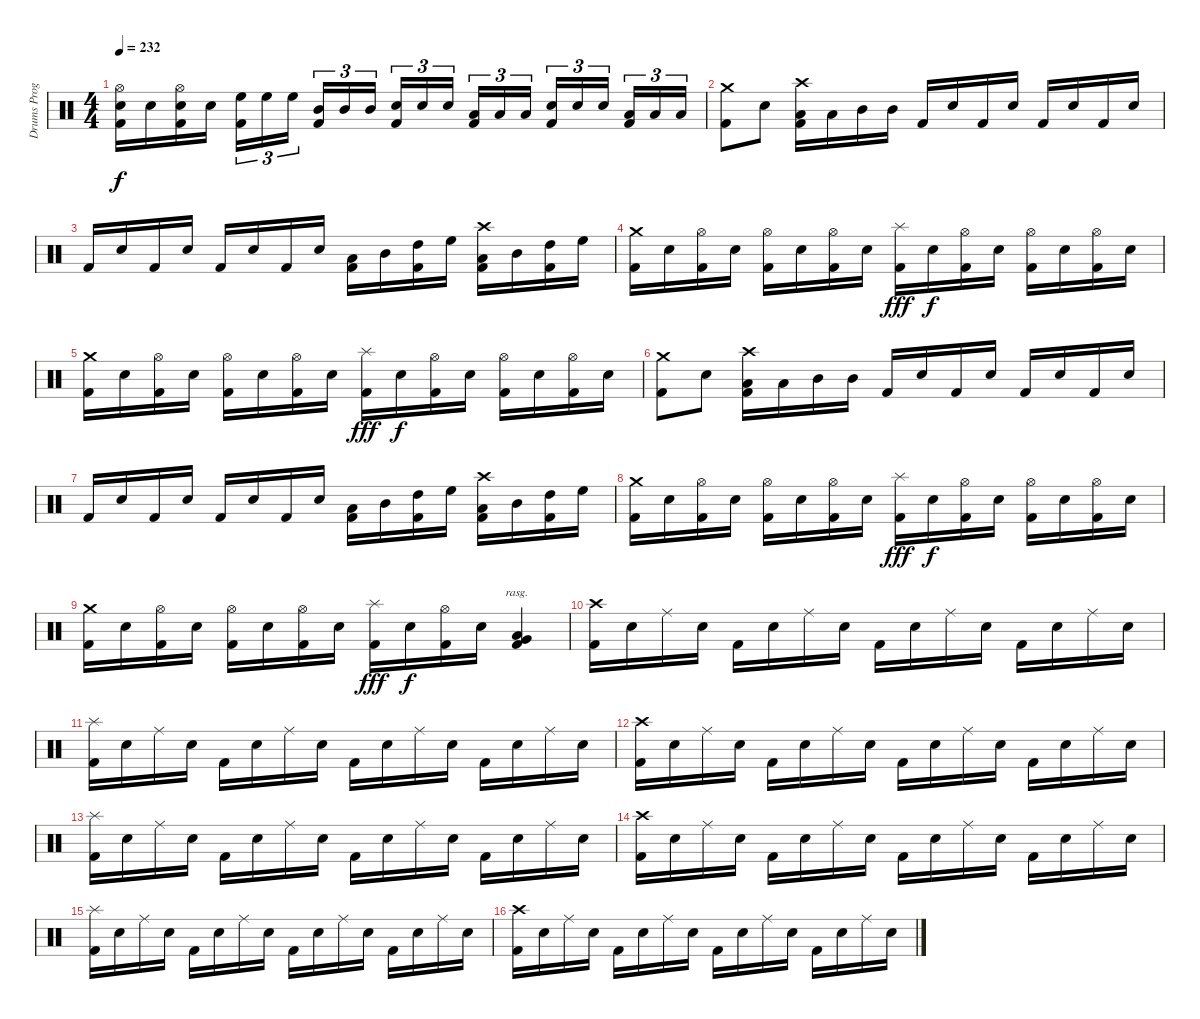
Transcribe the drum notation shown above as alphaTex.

\track ("Drums Programming" "Drums Prog") {instrument percussion}
\staff {score}
\articulation defaults
\ts (4 4)
\tempo 232
\clef neutral
\ks c
("Hi-Hat (open)" "Electric Snare (hit)" "Kick (hit) 2").16{dy f} "Electric Snare (hit)".16 ("Hi-Hat (open)" "Electric Snare (hit)" "Kick (hit) 2").16 "Electric Snare (hit)".16 ("High Floor Tom (hit)" "Kick (hit) 2").16{tu (3 2)} "High Floor Tom (hit)".16{tu (3 2)} "High Floor Tom (hit)".16{tu (3 2)} ("Mid Tom (hit)" "Kick (hit) 2").16{tu (3 2)} "Mid Tom (hit)".16{tu (3 2)} "Mid Tom (hit)".16{tu (3 2)} ("Electric Snare (hit)" "Kick (hit) 2").16{tu (3 2)} "Electric Snare (hit)".16{tu (3 2)} "Electric Snare (hit)".16{tu (3 2)} ("Low Tom (hit)" "Kick (hit) 2").16{tu (3 2)} "Low Tom (hit)".16{tu (3 2)} "Low Tom (hit)".16{tu (3 2)} ("Electric Snare (hit)" "Kick (hit) 2").16{tu (3 2)} "Electric Snare (hit)".16{tu (3 2)} "Electric Snare (hit)".16{tu (3 2)} ("Low Floor Tom (hit)" "Kick (hit) 2").16{tu (3 2)} "Low Floor Tom (hit)".16{tu (3 2)} "Low Floor Tom (hit)".16{tu (3 2)} |
("Crash medium (hit)" "Kick (hit) 2").8 "Electric Snare (hit)".8 ("Crash high (hit)" "Low Tom (hit)" "Kick (hit) 2").16 "Low Tom (hit)".16 "Mid Tom (hit)".16 "Mid Tom (hit)".16 "Kick (hit) 2".16 "Electric Snare (hit)".16 "Kick (hit) 2".16 "Electric Snare (hit)".16 "Kick (hit) 2".16 "Electric Snare (hit)".16 "Kick (hit) 2".16 "Electric Snare (hit)".16 |
"Kick (hit) 2".16 "Electric Snare (hit)".16 "Kick (hit) 2".16 "Electric Snare (hit)".16 "Kick (hit) 2".16 "Electric Snare (hit)".16 "Kick (hit) 2".16 "Electric Snare (hit)".16 ("Low Tom (hit)" "Kick (hit) 2").16 "Mid Tom (hit)".16 ("High Tom (hit)" "Kick (hit) 2").16 "High Floor Tom (hit)".16 ("Crash high (hit)" "Low Tom (hit)" "Kick (hit) 2").16 "Mid Tom (hit)".16 ("High Tom (hit)" "Kick (hit) 2").16 "High Floor Tom (hit)".16 |
("Crash medium (hit)" "Kick (hit) 2").16 "Electric Snare (hit)".16 ("Hi-Hat (open)" "Kick (hit) 2").16 "Electric Snare (hit)".16 ("Hi-Hat (open)" "Kick (hit) 2").16 "Electric Snare (hit)".16 ("Hi-Hat (open)" "Kick (hit) 2").16 "Electric Snare (hit)".16 ("Splash (hit)" "Kick (hit) 2").16{dy fff} "Electric Snare (hit)".16{dy f} ("Hi-Hat (open)" "Kick (hit) 2").16 "Electric Snare (hit)".16 ("Hi-Hat (open)" "Kick (hit) 2").16 "Electric Snare (hit)".16 ("Hi-Hat (open)" "Kick (hit) 2").16 "Electric Snare (hit)".16 |
("Crash medium (hit)" "Kick (hit) 2").16 "Electric Snare (hit)".16 ("Hi-Hat (open)" "Kick (hit) 2").16 "Electric Snare (hit)".16 ("Hi-Hat (open)" "Kick (hit) 2").16 "Electric Snare (hit)".16 ("Hi-Hat (open)" "Kick (hit) 2").16 "Electric Snare (hit)".16 ("Splash (hit)" "Kick (hit) 2").16{dy fff} "Electric Snare (hit)".16{dy f} ("Hi-Hat (open)" "Kick (hit) 2").16 "Electric Snare (hit)".16 ("Hi-Hat (open)" "Kick (hit) 2").16 "Electric Snare (hit)".16 ("Hi-Hat (open)" "Kick (hit) 2").16 "Electric Snare (hit)".16 |
("Crash medium (hit)" "Kick (hit) 2").8 "Electric Snare (hit)".8 ("Crash high (hit)" "Low Tom (hit)" "Kick (hit) 2").16 "Low Tom (hit)".16 "Mid Tom (hit)".16 "Mid Tom (hit)".16 "Kick (hit) 2".16 "Electric Snare (hit)".16 "Kick (hit) 2".16 "Electric Snare (hit)".16 "Kick (hit) 2".16 "Electric Snare (hit)".16 "Kick (hit) 2".16 "Electric Snare (hit)".16 |
"Kick (hit) 2".16 "Electric Snare (hit)".16 "Kick (hit) 2".16 "Electric Snare (hit)".16 "Kick (hit) 2".16 "Electric Snare (hit)".16 "Kick (hit) 2".16 "Electric Snare (hit)".16 ("Low Tom (hit)" "Kick (hit) 2").16 "Mid Tom (hit)".16 ("High Tom (hit)" "Kick (hit) 2").16 "High Floor Tom (hit)".16 ("Crash high (hit)" "Low Tom (hit)" "Kick (hit) 2").16 "Mid Tom (hit)".16 ("High Tom (hit)" "Kick (hit) 2").16 "High Floor Tom (hit)".16 |
("Crash medium (hit)" "Kick (hit) 2").16 "Electric Snare (hit)".16 ("Hi-Hat (open)" "Kick (hit) 2").16 "Electric Snare (hit)".16 ("Hi-Hat (open)" "Kick (hit) 2").16 "Electric Snare (hit)".16 ("Hi-Hat (open)" "Kick (hit) 2").16 "Electric Snare (hit)".16 ("Splash (hit)" "Kick (hit) 2").16{dy fff} "Electric Snare (hit)".16{dy f} ("Hi-Hat (open)" "Kick (hit) 2").16 "Electric Snare (hit)".16 ("Hi-Hat (open)" "Kick (hit) 2").16 "Electric Snare (hit)".16 ("Hi-Hat (open)" "Kick (hit) 2").16 "Electric Snare (hit)".16 |
("Crash medium (hit)" "Kick (hit) 2").16 "Electric Snare (hit)".16 ("Hi-Hat (open)" "Kick (hit) 2").16 "Electric Snare (hit)".16 ("Hi-Hat (open)" "Kick (hit) 2").16 "Electric Snare (hit)".16 ("Hi-Hat (open)" "Kick (hit) 2").16 "Electric Snare (hit)".16 ("Splash (hit)" "Kick (hit) 2").16{dy fff} "Electric Snare (hit)".16{dy f} ("Hi-Hat (open)" "Kick (hit) 2").16 "Electric Snare (hit)".16 ("Low Tom (hit)" "Very Low Tom (hit)" "Kick (hit) 2").4{bd 240 rasg ii} |
("Crash high (hit)" "Kick (hit) 2").16 "Electric Snare (hit)".16 "Ride (middle)".16 "Electric Snare (hit)".16 "Kick (hit) 2".16 "Electric Snare (hit)".16 "Ride (middle)".16 "Electric Snare (hit)".16 "Kick (hit) 2".16 "Electric Snare (hit)".16 "Ride (middle)".16 "Electric Snare (hit)".16 "Kick (hit) 2".16 "Electric Snare (hit)".16 "Ride (middle)".16 "Electric Snare (hit)".16 |
("Splash (hit)" "Kick (hit) 2").16 "Electric Snare (hit)".16 "Ride (middle)".16 "Electric Snare (hit)".16 "Kick (hit) 2".16 "Electric Snare (hit)".16 "Ride (middle)".16 "Electric Snare (hit)".16 "Kick (hit) 2".16 "Electric Snare (hit)".16 "Ride (middle)".16 "Electric Snare (hit)".16 "Kick (hit) 2".16 "Electric Snare (hit)".16 "Ride (middle)".16 "Electric Snare (hit)".16 |
("Crash high (hit)" "Kick (hit) 2").16 "Electric Snare (hit)".16 "Ride (middle)".16 "Electric Snare (hit)".16 "Kick (hit) 2".16 "Electric Snare (hit)".16 "Ride (middle)".16 "Electric Snare (hit)".16 "Kick (hit) 2".16 "Electric Snare (hit)".16 "Ride (middle)".16 "Electric Snare (hit)".16 "Kick (hit) 2".16 "Electric Snare (hit)".16 "Ride (middle)".16 "Electric Snare (hit)".16 |
("Splash (hit)" "Kick (hit) 2").16 "Electric Snare (hit)".16 "Ride (middle)".16 "Electric Snare (hit)".16 "Kick (hit) 2".16 "Electric Snare (hit)".16 "Ride (middle)".16 "Electric Snare (hit)".16 "Kick (hit) 2".16 "Electric Snare (hit)".16 "Ride (middle)".16 "Electric Snare (hit)".16 "Kick (hit) 2".16 "Electric Snare (hit)".16 "Ride (middle)".16 "Electric Snare (hit)".16 |
("Crash high (hit)" "Kick (hit) 2").16 "Electric Snare (hit)".16 "Ride (middle)".16 "Electric Snare (hit)".16 "Kick (hit) 2".16 "Electric Snare (hit)".16 "Ride (middle)".16 "Electric Snare (hit)".16 "Kick (hit) 2".16 "Electric Snare (hit)".16 "Ride (middle)".16 "Electric Snare (hit)".16 "Kick (hit) 2".16 "Electric Snare (hit)".16 "Ride (middle)".16 "Electric Snare (hit)".16 |
("Splash (hit)" "Kick (hit) 2").16 "Electric Snare (hit)".16 "Ride (middle)".16 "Electric Snare (hit)".16 "Kick (hit) 2".16 "Electric Snare (hit)".16 "Ride (middle)".16 "Electric Snare (hit)".16 "Kick (hit) 2".16 "Electric Snare (hit)".16 "Ride (middle)".16 "Electric Snare (hit)".16 "Kick (hit) 2".16 "Electric Snare (hit)".16 "Ride (middle)".16 "Electric Snare (hit)".16 |
("Crash high (hit)" "Kick (hit) 2").16 "Electric Snare (hit)".16 "Ride (middle)".16 "Electric Snare (hit)".16 "Kick (hit) 2".16 "Electric Snare (hit)".16 "Ride (middle)".16 "Electric Snare (hit)".16 "Kick (hit) 2".16 "Electric Snare (hit)".16 "Ride (middle)".16 "Electric Snare (hit)".16 "Kick (hit) 2".16 "Electric Snare (hit)".16 "Ride (middle)".16 "Electric Snare (hit)".16
